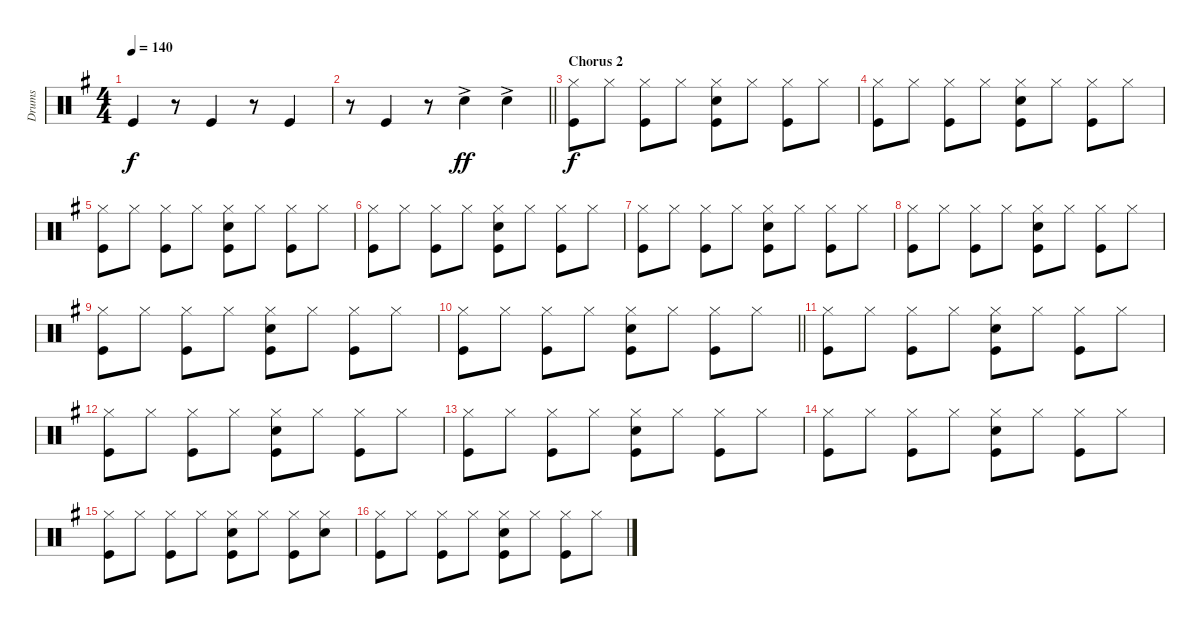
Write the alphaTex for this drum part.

\track ("Drums" "Drums") {instrument percussion}
\staff {score}
\articulation defaults
\ts (4 4)
\tempo 140
\clef neutral
\ks g "Kick (hit)".4{dy f}
r.8 "Kick (hit)".4 r.8 "Kick (hit)".4 |
\barLineRight lightlight
r.8 "Kick (hit)".4 r.8 "Snare (hit) 2"{ac}.4{dy ff} "Snare (hit) 2"{ac}.4 |
\section ("" "Chorus 2")
("Hi-Hat (closed)" "Kick (hit)").8{dy f} "Hi-Hat (closed)".8 ("Hi-Hat (closed)" "Kick (hit)").8 "Hi-Hat (closed)".8 ("Hi-Hat (closed)" "Snare (hit) 2" "Kick (hit)").8 "Hi-Hat (closed)".8 ("Hi-Hat (closed)" "Kick (hit)").8 "Hi-Hat (closed)".8 |
("Hi-Hat (closed)" "Kick (hit)").8 "Hi-Hat (closed)".8 ("Hi-Hat (closed)" "Kick (hit)").8 "Hi-Hat (closed)".8 ("Hi-Hat (closed)" "Snare (hit) 2" "Kick (hit)").8 "Hi-Hat (closed)".8 ("Hi-Hat (closed)" "Kick (hit)").8 "Hi-Hat (closed)".8 |
("Hi-Hat (closed)" "Kick (hit)").8 "Hi-Hat (closed)".8 ("Hi-Hat (closed)" "Kick (hit)").8 "Hi-Hat (closed)".8 ("Hi-Hat (closed)" "Snare (hit) 2" "Kick (hit)").8 "Hi-Hat (closed)".8 ("Hi-Hat (closed)" "Kick (hit)").8 "Hi-Hat (closed)".8 |
("Hi-Hat (closed)" "Kick (hit)").8 "Hi-Hat (closed)".8 ("Hi-Hat (closed)" "Kick (hit)").8 "Hi-Hat (closed)".8 ("Hi-Hat (closed)" "Snare (hit) 2" "Kick (hit)").8 "Hi-Hat (closed)".8 ("Hi-Hat (closed)" "Kick (hit)").8 "Hi-Hat (closed)".8 |
("Hi-Hat (closed)" "Kick (hit)").8 "Hi-Hat (closed)".8 ("Hi-Hat (closed)" "Kick (hit)").8 "Hi-Hat (closed)".8 ("Hi-Hat (closed)" "Snare (hit) 2" "Kick (hit)").8 "Hi-Hat (closed)".8 ("Hi-Hat (closed)" "Kick (hit)").8 "Hi-Hat (closed)".8 |
("Hi-Hat (closed)" "Kick (hit)").8 "Hi-Hat (closed)".8 ("Hi-Hat (closed)" "Kick (hit)").8 "Hi-Hat (closed)".8 ("Hi-Hat (closed)" "Snare (hit) 2" "Kick (hit)").8 "Hi-Hat (closed)".8 ("Hi-Hat (closed)" "Kick (hit)").8 "Hi-Hat (closed)".8 |
("Hi-Hat (closed)" "Kick (hit)").8 "Hi-Hat (closed)".8 ("Hi-Hat (closed)" "Kick (hit)").8 "Hi-Hat (closed)".8 ("Hi-Hat (closed)" "Snare (hit) 2" "Kick (hit)").8 "Hi-Hat (closed)".8 ("Hi-Hat (closed)" "Kick (hit)").8 "Hi-Hat (closed)".8 |
\barLineRight lightlight
("Hi-Hat (closed)" "Kick (hit)").8 "Hi-Hat (closed)".8 ("Hi-Hat (closed)" "Kick (hit)").8 "Hi-Hat (closed)".8 ("Hi-Hat (closed)" "Snare (hit) 2" "Kick (hit)").8 "Hi-Hat (closed)".8 ("Hi-Hat (closed)" "Kick (hit)").8 "Hi-Hat (closed)".8 |
("Hi-Hat (closed)" "Kick (hit)").8 "Hi-Hat (closed)".8 ("Hi-Hat (closed)" "Kick (hit)").8 "Hi-Hat (closed)".8 ("Hi-Hat (closed)" "Snare (hit) 2" "Kick (hit)").8 "Hi-Hat (closed)".8 ("Hi-Hat (closed)" "Kick (hit)").8 "Hi-Hat (closed)".8 |
("Hi-Hat (closed)" "Kick (hit)").8 "Hi-Hat (closed)".8 ("Hi-Hat (closed)" "Kick (hit)").8 "Hi-Hat (closed)".8 ("Hi-Hat (closed)" "Snare (hit) 2" "Kick (hit)").8 "Hi-Hat (closed)".8 ("Hi-Hat (closed)" "Kick (hit)").8 "Hi-Hat (closed)".8 |
("Hi-Hat (closed)" "Kick (hit)").8 "Hi-Hat (closed)".8 ("Hi-Hat (closed)" "Kick (hit)").8 "Hi-Hat (closed)".8 ("Hi-Hat (closed)" "Snare (hit) 2" "Kick (hit)").8 "Hi-Hat (closed)".8 ("Hi-Hat (closed)" "Kick (hit)").8 "Hi-Hat (closed)".8 |
("Hi-Hat (closed)" "Kick (hit)").8 "Hi-Hat (closed)".8 ("Hi-Hat (closed)" "Kick (hit)").8 "Hi-Hat (closed)".8 ("Hi-Hat (closed)" "Snare (hit) 2" "Kick (hit)").8 "Hi-Hat (closed)".8 ("Hi-Hat (closed)" "Kick (hit)").8 "Hi-Hat (closed)".8 |
("Hi-Hat (closed)" "Kick (hit)").8 "Hi-Hat (closed)".8 ("Hi-Hat (closed)" "Kick (hit)").8 "Hi-Hat (closed)".8 ("Hi-Hat (closed)" "Snare (hit) 2" "Kick (hit)").8 "Hi-Hat (closed)".8 ("Hi-Hat (closed)" "Kick (hit)").8 ("Hi-Hat (closed)" "Snare (hit) 2").8 |
("Hi-Hat (closed)" "Kick (hit)").8 "Hi-Hat (closed)".8 ("Hi-Hat (closed)" "Kick (hit)").8 "Hi-Hat (closed)".8 ("Hi-Hat (closed)" "Snare (hit) 2" "Kick (hit)").8 "Hi-Hat (closed)".8 ("Hi-Hat (closed)" "Kick (hit)").8 "Hi-Hat (closed)".8
